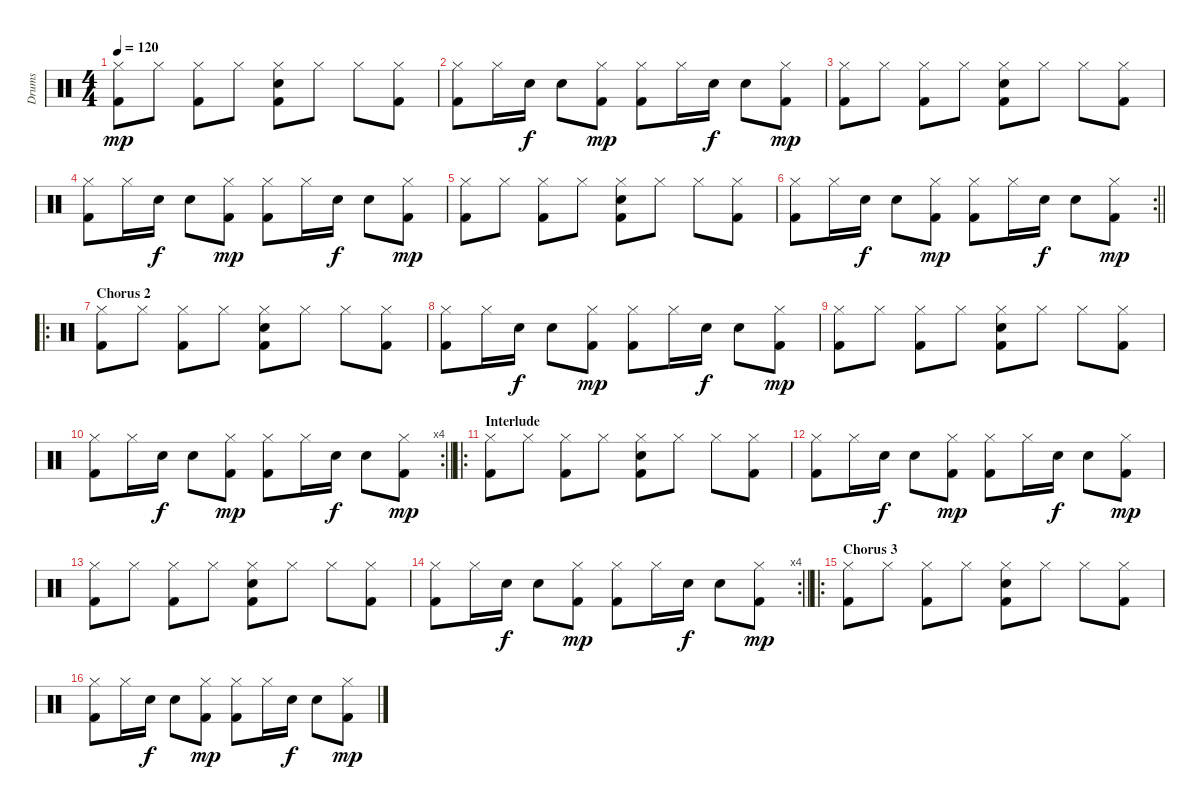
\track ("Drums" "Drums") {instrument percussion}
\staff {score}
\articulation defaults
\ts (4 4)
\tempo 120
\clef neutral
\ks c
("Hi-Hat (closed)" "Kick (hit) 2").8{dy mp} "Hi-Hat (closed)".8 ("Hi-Hat (closed)" "Kick (hit) 2").8 "Hi-Hat (closed)".8 ("Hi-Hat (closed)" "Electric Snare (hit)" "Kick (hit) 2").8 "Hi-Hat (closed)".8 "Hi-Hat (closed)".8 ("Hi-Hat (closed)" "Kick (hit) 2").8 |
("Hi-Hat (closed)" "Kick (hit) 2").8 "Hi-Hat (closed)".16 "Electric Snare (hit)".16{dy f} "Electric Snare (hit)".8 ("Hi-Hat (closed)" "Kick (hit) 2").8{dy mp} ("Hi-Hat (closed)" "Kick (hit) 2").8 "Hi-Hat (closed)".16 "Electric Snare (hit)".16{dy f} "Electric Snare (hit)".8 ("Hi-Hat (closed)" "Kick (hit) 2").8{dy mp} |
("Hi-Hat (closed)" "Kick (hit) 2").8 "Hi-Hat (closed)".8 ("Hi-Hat (closed)" "Kick (hit) 2").8 "Hi-Hat (closed)".8 ("Hi-Hat (closed)" "Electric Snare (hit)" "Kick (hit) 2").8 "Hi-Hat (closed)".8 "Hi-Hat (closed)".8 ("Hi-Hat (closed)" "Kick (hit) 2").8 |
("Hi-Hat (closed)" "Kick (hit) 2").8 "Hi-Hat (closed)".16 "Electric Snare (hit)".16{dy f} "Electric Snare (hit)".8 ("Hi-Hat (closed)" "Kick (hit) 2").8{dy mp} ("Hi-Hat (closed)" "Kick (hit) 2").8 "Hi-Hat (closed)".16 "Electric Snare (hit)".16{dy f} "Electric Snare (hit)".8 ("Hi-Hat (closed)" "Kick (hit) 2").8{dy mp} |
("Hi-Hat (closed)" "Kick (hit) 2").8 "Hi-Hat (closed)".8 ("Hi-Hat (closed)" "Kick (hit) 2").8 "Hi-Hat (closed)".8 ("Hi-Hat (closed)" "Electric Snare (hit)" "Kick (hit) 2").8 "Hi-Hat (closed)".8 "Hi-Hat (closed)".8 ("Hi-Hat (closed)" "Kick (hit) 2").8 |
\rc 2
\barLineRight lightlight
("Hi-Hat (closed)" "Kick (hit) 2").8 "Hi-Hat (closed)".16 "Electric Snare (hit)".16{dy f} "Electric Snare (hit)".8 ("Hi-Hat (closed)" "Kick (hit) 2").8{dy mp} ("Hi-Hat (closed)" "Kick (hit) 2").8 "Hi-Hat (closed)".16 "Electric Snare (hit)".16{dy f} "Electric Snare (hit)".8 ("Hi-Hat (closed)" "Kick (hit) 2").8{dy mp} |
\ro
\section ("" "Chorus 2")
("Hi-Hat (closed)" "Kick (hit) 2").8 "Hi-Hat (closed)".8 ("Hi-Hat (closed)" "Kick (hit) 2").8 "Hi-Hat (closed)".8 ("Hi-Hat (closed)" "Electric Snare (hit)" "Kick (hit) 2").8 "Hi-Hat (closed)".8 "Hi-Hat (closed)".8 ("Hi-Hat (closed)" "Kick (hit) 2").8 |
("Hi-Hat (closed)" "Kick (hit) 2").8 "Hi-Hat (closed)".16 "Electric Snare (hit)".16{dy f} "Electric Snare (hit)".8 ("Hi-Hat (closed)" "Kick (hit) 2").8{dy mp} ("Hi-Hat (closed)" "Kick (hit) 2").8 "Hi-Hat (closed)".16 "Electric Snare (hit)".16{dy f} "Electric Snare (hit)".8 ("Hi-Hat (closed)" "Kick (hit) 2").8{dy mp} |
("Hi-Hat (closed)" "Kick (hit) 2").8 "Hi-Hat (closed)".8 ("Hi-Hat (closed)" "Kick (hit) 2").8 "Hi-Hat (closed)".8 ("Hi-Hat (closed)" "Electric Snare (hit)" "Kick (hit) 2").8 "Hi-Hat (closed)".8 "Hi-Hat (closed)".8 ("Hi-Hat (closed)" "Kick (hit) 2").8 |
\rc 4
\barLineRight lightlight
("Hi-Hat (closed)" "Kick (hit) 2").8 "Hi-Hat (closed)".16 "Electric Snare (hit)".16{dy f} "Electric Snare (hit)".8 ("Hi-Hat (closed)" "Kick (hit) 2").8{dy mp} ("Hi-Hat (closed)" "Kick (hit) 2").8 "Hi-Hat (closed)".16 "Electric Snare (hit)".16{dy f} "Electric Snare (hit)".8 ("Hi-Hat (closed)" "Kick (hit) 2").8{dy mp} |
\ro
\section ("" "Interlude")
("Hi-Hat (closed)" "Kick (hit) 2").8 "Hi-Hat (closed)".8 ("Hi-Hat (closed)" "Kick (hit) 2").8 "Hi-Hat (closed)".8 ("Hi-Hat (closed)" "Electric Snare (hit)" "Kick (hit) 2").8 "Hi-Hat (closed)".8 "Hi-Hat (closed)".8 ("Hi-Hat (closed)" "Kick (hit) 2").8 |
("Hi-Hat (closed)" "Kick (hit) 2").8 "Hi-Hat (closed)".16 "Electric Snare (hit)".16{dy f} "Electric Snare (hit)".8 ("Hi-Hat (closed)" "Kick (hit) 2").8{dy mp} ("Hi-Hat (closed)" "Kick (hit) 2").8 "Hi-Hat (closed)".16 "Electric Snare (hit)".16{dy f} "Electric Snare (hit)".8 ("Hi-Hat (closed)" "Kick (hit) 2").8{dy mp} |
("Hi-Hat (closed)" "Kick (hit) 2").8 "Hi-Hat (closed)".8 ("Hi-Hat (closed)" "Kick (hit) 2").8 "Hi-Hat (closed)".8 ("Hi-Hat (closed)" "Electric Snare (hit)" "Kick (hit) 2").8 "Hi-Hat (closed)".8 "Hi-Hat (closed)".8 ("Hi-Hat (closed)" "Kick (hit) 2").8 |
\rc 4
\barLineRight lightlight
("Hi-Hat (closed)" "Kick (hit) 2").8 "Hi-Hat (closed)".16 "Electric Snare (hit)".16{dy f} "Electric Snare (hit)".8 ("Hi-Hat (closed)" "Kick (hit) 2").8{dy mp} ("Hi-Hat (closed)" "Kick (hit) 2").8 "Hi-Hat (closed)".16 "Electric Snare (hit)".16{dy f} "Electric Snare (hit)".8 ("Hi-Hat (closed)" "Kick (hit) 2").8{dy mp} |
\ro
\section ("" "Chorus 3")
("Hi-Hat (closed)" "Kick (hit) 2").8 "Hi-Hat (closed)".8 ("Hi-Hat (closed)" "Kick (hit) 2").8 "Hi-Hat (closed)".8 ("Hi-Hat (closed)" "Electric Snare (hit)" "Kick (hit) 2").8 "Hi-Hat (closed)".8 "Hi-Hat (closed)".8 ("Hi-Hat (closed)" "Kick (hit) 2").8 |
("Hi-Hat (closed)" "Kick (hit) 2").8 "Hi-Hat (closed)".16 "Electric Snare (hit)".16{dy f} "Electric Snare (hit)".8 ("Hi-Hat (closed)" "Kick (hit) 2").8{dy mp} ("Hi-Hat (closed)" "Kick (hit) 2").8 "Hi-Hat (closed)".16 "Electric Snare (hit)".16{dy f} "Electric Snare (hit)".8 ("Hi-Hat (closed)" "Kick (hit) 2").8{dy mp}
